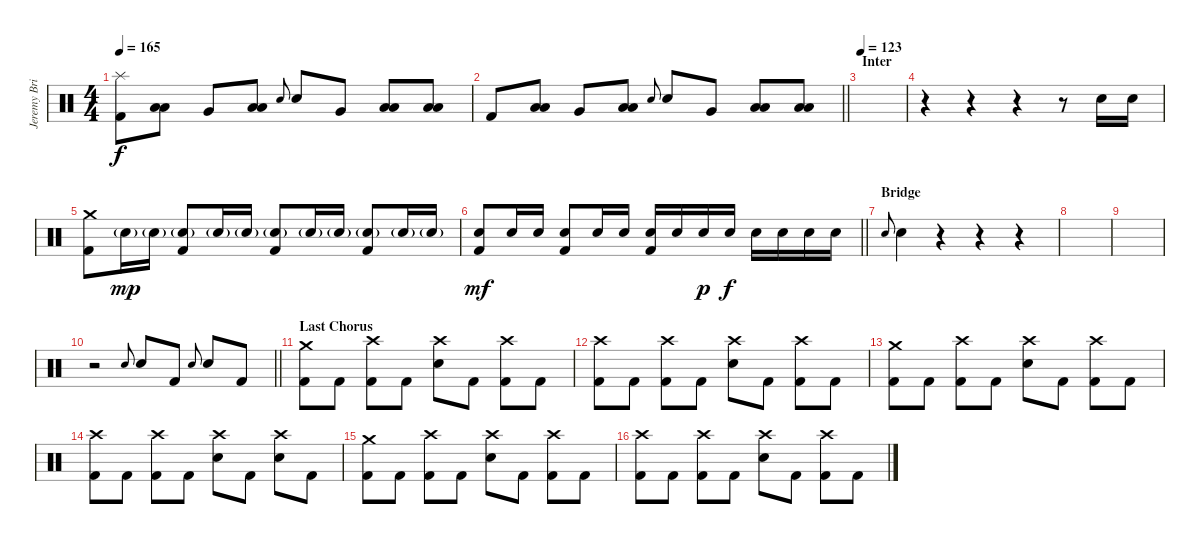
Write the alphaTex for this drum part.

\track ("Jeremy Brian [Drums]" "Jeremy Bri") {instrument percussion}
\staff {score}
\articulation defaults
\ts (4 4)
\tempo 165
\clef neutral
\ks c
("Splash (hit)" "Kick (hit) 2").8{dy f} ("Low Floor Tom (hit)" "Low Tom (hit)").8 "Very Low Tom (hit)".8 ("Low Floor Tom (hit)" "Low Tom (hit)").8 "Electric Snare (hit)".8{gr onbeat} "Electric Snare (hit)".8 "Very Low Tom (hit)".8 ("Low Floor Tom (hit)" "Low Tom (hit)").8 ("Low Floor Tom (hit)" "Low Tom (hit)").8 |
\barLineRight lightlight "Kick (hit) 2".8
("Low Floor Tom (hit)" "Low Tom (hit)").8 "Very Low Tom (hit)".8 ("Low Floor Tom (hit)" "Low Tom (hit)").8 "Electric Snare (hit)".8{gr onbeat} "Electric Snare (hit)".8 "Very Low Tom (hit)".8 ("Low Floor Tom (hit)" "Low Tom (hit)").8 ("Low Floor Tom (hit)" "Low Tom (hit)").8 |
\section ("" "Inter")
\tempo 123
|
r.4 r.4 r.4 r.8 "Electric Snare (hit)".16 "Electric Snare (hit)".16 |
("Crash medium (hit)" "Kick (hit) 2").8 "Electric Snare (hit)"{g}.16{dy mp} "Electric Snare (hit)"{g}.16 ("Electric Snare (hit)"{g} "Kick (hit) 2").8 "Electric Snare (hit)"{g}.16 "Electric Snare (hit)"{g}.16 ("Electric Snare (hit)"{g} "Kick (hit) 2").8 "Electric Snare (hit)"{g}.16 "Electric Snare (hit)"{g}.16 ("Electric Snare (hit)"{g} "Kick (hit) 2").8 "Electric Snare (hit)"{g}.16 "Electric Snare (hit)"{g}.16 |
\barLineRight lightlight
("Electric Snare (hit)" "Kick (hit) 2").8{dy mf} "Electric Snare (hit)".16 "Electric Snare (hit)".16 ("Electric Snare (hit)" "Kick (hit) 2").8 "Electric Snare (hit)".16 "Electric Snare (hit)".16 ("Electric Snare (hit)" "Kick (hit) 2").16 "Electric Snare (hit)".16 "Electric Snare (hit)".16{dy p} "Electric Snare (hit)".16{dy f} "Electric Snare (hit)".16 "Electric Snare (hit)".16 "Electric Snare (hit)".16 "Electric Snare (hit)".16 |
\section ("" "Bridge")
"Electric Snare (hit)".8{gr onbeat} "Electric Snare (hit)".4 r.4 r.4 r.4 |
|
|
\barLineRight lightlight
r.2 "Electric Snare (hit)".8{gr onbeat} "Electric Snare (hit)".8 "Kick (hit) 2".8 "Electric Snare (hit)".8{gr onbeat} "Electric Snare (hit)".8 "Kick (hit) 2".8 |
\section ("" "Last Chorus")
("Crash medium (hit)" "Kick (hit) 2").8 "Kick (hit) 2".8 ("Crash high (hit)" "Kick (hit) 2").8 "Kick (hit) 2".8 ("Crash high (hit)" "Electric Snare (hit)").8 "Kick (hit) 2".8 ("Crash high (hit)" "Kick (hit) 2").8 "Kick (hit) 2".8 |
("Crash high (hit)" "Kick (hit) 2").8 "Kick (hit) 2".8 ("Crash high (hit)" "Kick (hit) 2").8 "Kick (hit) 2".8 ("Crash high (hit)" "Electric Snare (hit)").8 "Kick (hit) 2".8 ("Crash high (hit)" "Kick (hit) 2").8 "Kick (hit) 2".8 |
("Crash medium (hit)" "Kick (hit) 2").8 "Kick (hit) 2".8 ("Crash high (hit)" "Kick (hit) 2").8 "Kick (hit) 2".8 ("Crash high (hit)" "Electric Snare (hit)").8 "Kick (hit) 2".8 ("Crash high (hit)" "Kick (hit) 2").8 "Kick (hit) 2".8 |
("Crash high (hit)" "Kick (hit) 2").8 "Kick (hit) 2".8 ("Crash high (hit)" "Kick (hit) 2").8 "Kick (hit) 2".8 ("Crash high (hit)" "Electric Snare (hit)").8 "Kick (hit) 2".8 ("Crash high (hit)" "Electric Snare (hit)").8 "Kick (hit) 2".8 |
("Crash medium (hit)" "Kick (hit) 2").8 "Kick (hit) 2".8 ("Crash high (hit)" "Kick (hit) 2").8 "Kick (hit) 2".8 ("Crash high (hit)" "Electric Snare (hit)").8 "Kick (hit) 2".8 ("Crash high (hit)" "Kick (hit) 2").8 "Kick (hit) 2".8 |
("Crash high (hit)" "Kick (hit) 2").8 "Kick (hit) 2".8 ("Crash high (hit)" "Kick (hit) 2").8 "Kick (hit) 2".8 ("Crash high (hit)" "Electric Snare (hit)").8 "Kick (hit) 2".8 ("Crash high (hit)" "Kick (hit) 2").8 "Kick (hit) 2".8
